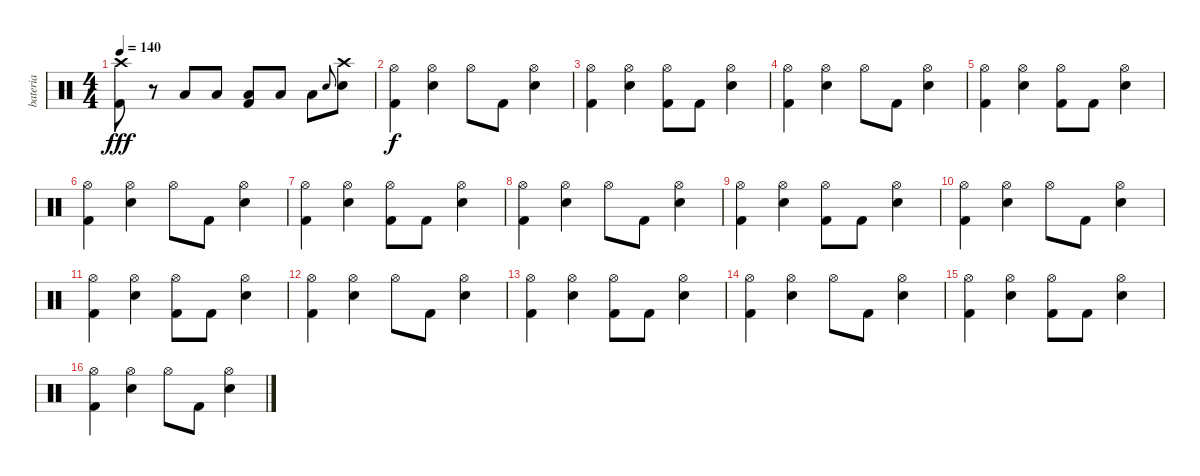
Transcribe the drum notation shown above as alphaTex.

\track ("bateria" "bateria") {instrument percussion}
\staff {score}
\articulation defaults
\ts (4 4)
\tempo 140
\clef neutral
\ks c
("Crash high (hit)" "Kick (hit) 2").8{dy fff} r.8 "Low Floor Tom (hit)".8 "Low Floor Tom (hit)".8 ("Low Floor Tom (hit)" "Kick (hit) 2").8 "Low Floor Tom (hit)".8 "Low Floor Tom (hit)".8 "Snare (hit) 2".8{gr onbeat} ("Crash high (hit)" "Snare (hit) 2").8 |
("Hi-Hat (open)" "Kick (hit) 2").4{dy f} ("Hi-Hat (open)" "Snare (hit) 2").4 "Hi-Hat (open)".8 "Kick (hit) 2".8 ("Hi-Hat (open)" "Snare (hit) 2").4 |
("Hi-Hat (open)" "Kick (hit) 2").4 ("Hi-Hat (open)" "Snare (hit) 2").4 ("Hi-Hat (open)" "Kick (hit) 2").8 "Kick (hit) 2".8 ("Hi-Hat (open)" "Snare (hit) 2").4 |
("Hi-Hat (open)" "Kick (hit) 2").4 ("Hi-Hat (open)" "Snare (hit) 2").4 "Hi-Hat (open)".8 "Kick (hit) 2".8 ("Hi-Hat (open)" "Snare (hit) 2").4 |
("Hi-Hat (open)" "Kick (hit) 2").4 ("Hi-Hat (open)" "Snare (hit) 2").4 ("Hi-Hat (open)" "Kick (hit) 2").8 "Kick (hit) 2".8 ("Hi-Hat (open)" "Snare (hit) 2").4 |
("Hi-Hat (open)" "Kick (hit) 2").4 ("Hi-Hat (open)" "Snare (hit) 2").4 "Hi-Hat (open)".8 "Kick (hit) 2".8 ("Hi-Hat (open)" "Snare (hit) 2").4 |
("Hi-Hat (open)" "Kick (hit) 2").4 ("Hi-Hat (open)" "Snare (hit) 2").4 ("Hi-Hat (open)" "Kick (hit) 2").8 "Kick (hit) 2".8 ("Hi-Hat (open)" "Snare (hit) 2").4 |
("Hi-Hat (open)" "Kick (hit) 2").4 ("Hi-Hat (open)" "Snare (hit) 2").4 "Hi-Hat (open)".8 "Kick (hit) 2".8 ("Hi-Hat (open)" "Snare (hit) 2").4 |
("Hi-Hat (open)" "Kick (hit) 2").4 ("Hi-Hat (open)" "Snare (hit) 2").4 ("Hi-Hat (open)" "Kick (hit) 2").8 "Kick (hit) 2".8 ("Hi-Hat (open)" "Snare (hit) 2").4 |
("Hi-Hat (open)" "Kick (hit) 2").4 ("Hi-Hat (open)" "Snare (hit) 2").4 "Hi-Hat (open)".8 "Kick (hit) 2".8 ("Hi-Hat (open)" "Snare (hit) 2").4 |
("Hi-Hat (open)" "Kick (hit) 2").4 ("Hi-Hat (open)" "Snare (hit) 2").4 ("Hi-Hat (open)" "Kick (hit) 2").8 "Kick (hit) 2".8 ("Hi-Hat (open)" "Snare (hit) 2").4 |
("Hi-Hat (open)" "Kick (hit) 2").4 ("Hi-Hat (open)" "Snare (hit) 2").4 "Hi-Hat (open)".8 "Kick (hit) 2".8 ("Hi-Hat (open)" "Snare (hit) 2").4 |
("Hi-Hat (open)" "Kick (hit) 2").4 ("Hi-Hat (open)" "Snare (hit) 2").4 ("Hi-Hat (open)" "Kick (hit) 2").8 "Kick (hit) 2".8 ("Hi-Hat (open)" "Snare (hit) 2").4 |
("Hi-Hat (open)" "Kick (hit) 2").4 ("Hi-Hat (open)" "Snare (hit) 2").4 "Hi-Hat (open)".8 "Kick (hit) 2".8 ("Hi-Hat (open)" "Snare (hit) 2").4 |
("Hi-Hat (open)" "Kick (hit) 2").4 ("Hi-Hat (open)" "Snare (hit) 2").4 ("Hi-Hat (open)" "Kick (hit) 2").8 "Kick (hit) 2".8 ("Hi-Hat (open)" "Snare (hit) 2").4 |
("Hi-Hat (open)" "Kick (hit) 2").4 ("Hi-Hat (open)" "Snare (hit) 2").4 "Hi-Hat (open)".8 "Kick (hit) 2".8 ("Hi-Hat (open)" "Snare (hit) 2").4
